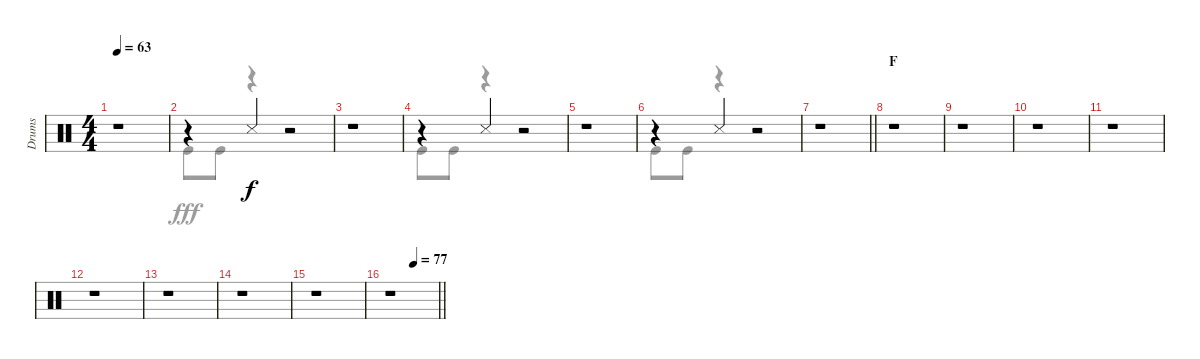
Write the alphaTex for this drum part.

\track ("Drums" "Drums") {instrument percussion}
\staff {score}
\articulation defaults
\voice
\ts (4 4)
\tempo 63
\clef neutral
\ks c
r.1{dy f} |
r.4 "Snare (side stick) 3".4 r.2 |
r.1 |
r.4 "Snare (side stick) 3".4 r.2 |
r.1 |
r.4 "Snare (side stick) 3".4 r.2 |
\barLineRight lightlight
r.1 |
\section ("" "F")
r.1 |
r.1 |
r.1 |
r.1 |
r.1 |
r.1 |
r.1 |
r.1 |
\tempo (77 0.5)
\barLineRight lightlight
r.1
\voice
\clef neutral
\ottava regular
\simile none
\ks c
r.1{dy fff} |
"Kick (hit)".8 "Kick (hit)".8 r.4 r.2 |
r.1 |
"Kick (hit)".8 "Kick (hit)".8 r.4 r.2 |
r.1 |
"Kick (hit)".8 "Kick (hit)".8 r.4 r.2 |
\barLineRight lightlight
r.1 |
r.1 |
r.1 |
r.1 |
r.1 |
r.1 |
r.1 |
r.1 |
r.1 |
\barLineRight lightlight
r.1
